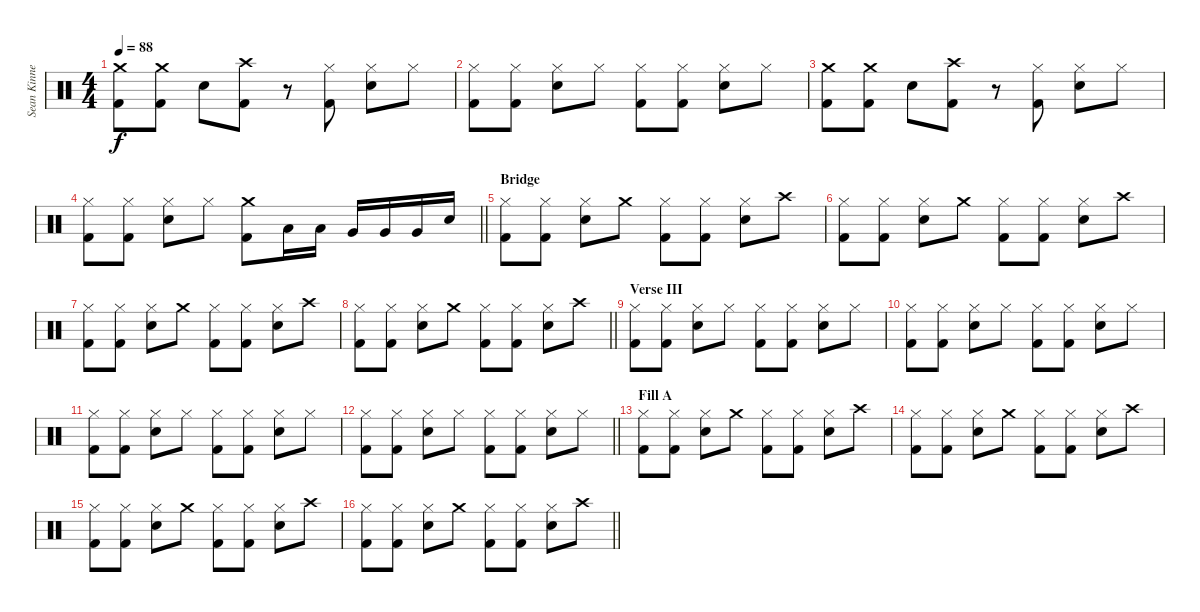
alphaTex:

\track ("Sean Kinney" "Sean Kinne") {instrument percussion}
\staff {score}
\articulation defaults
\ts (4 4)
\tempo 88
\clef neutral
\ks c
("Crash medium (hit)" "Kick (hit) 2").8{dy f} ("Crash medium (hit)" "Kick (hit) 2").8 "Electric Snare (hit)".8 ("Crash high (hit)" "Kick (hit) 2").8 r.8 ("Hi-Hat (closed)" "Kick (hit) 2").8 ("Hi-Hat (closed)" "Electric Snare (hit)").8 "Hi-Hat (closed)".8 |
("Hi-Hat (closed)" "Kick (hit) 2").8 ("Hi-Hat (closed)" "Kick (hit) 2").8 ("Hi-Hat (closed)" "Electric Snare (hit)").8 "Hi-Hat (closed)".8 ("Hi-Hat (closed)" "Kick (hit) 2").8 ("Hi-Hat (closed)" "Kick (hit) 2").8 ("Hi-Hat (closed)" "Electric Snare (hit)").8 "Hi-Hat (closed)".8 |
("Crash medium (hit)" "Kick (hit) 2").8 ("Crash medium (hit)" "Kick (hit) 2").8 "Electric Snare (hit)".8 ("Crash high (hit)" "Kick (hit) 2").8 r.8 ("Hi-Hat (closed)" "Kick (hit) 2").8 ("Hi-Hat (closed)" "Electric Snare (hit)").8 "Hi-Hat (closed)".8 |
\barLineRight lightlight
("Hi-Hat (closed)" "Kick (hit) 2").8 ("Hi-Hat (closed)" "Kick (hit) 2").8 ("Hi-Hat (closed)" "Electric Snare (hit)").8 "Hi-Hat (closed)".8 ("Crash medium (hit)" "Kick (hit) 2").8 "Low Tom (hit)".16 "Low Tom (hit)".16 "Very Low Tom (hit)".16 "Very Low Tom (hit)".16 "Very Low Tom (hit)".16 "Electric Snare (hit)".16 |
\section ("" "Bridge")
("Hi-Hat (closed)" "Kick (hit) 2").8 ("Hi-Hat (closed)" "Kick (hit) 2").8 ("Hi-Hat (closed)" "Electric Snare (hit)").8 "Crash medium (hit)".8 ("Hi-Hat (closed)" "Kick (hit) 2").8 ("Hi-Hat (closed)" "Kick (hit) 2").8 ("Hi-Hat (closed)" "Electric Snare (hit)").8 "Crash high (hit)".8 |
("Hi-Hat (closed)" "Kick (hit) 2").8 ("Hi-Hat (closed)" "Kick (hit) 2").8 ("Hi-Hat (closed)" "Electric Snare (hit)").8 "Crash medium (hit)".8 ("Hi-Hat (closed)" "Kick (hit) 2").8 ("Hi-Hat (closed)" "Kick (hit) 2").8 ("Hi-Hat (closed)" "Electric Snare (hit)").8 "Crash high (hit)".8 |
("Hi-Hat (closed)" "Kick (hit) 2").8 ("Hi-Hat (closed)" "Kick (hit) 2").8 ("Hi-Hat (closed)" "Electric Snare (hit)").8 "Crash medium (hit)".8 ("Hi-Hat (closed)" "Kick (hit) 2").8 ("Hi-Hat (closed)" "Kick (hit) 2").8 ("Hi-Hat (closed)" "Electric Snare (hit)").8 "Crash high (hit)".8 |
\barLineRight lightlight
("Hi-Hat (closed)" "Kick (hit) 2").8 ("Hi-Hat (closed)" "Kick (hit) 2").8 ("Hi-Hat (closed)" "Electric Snare (hit)").8 "Crash medium (hit)".8 ("Hi-Hat (closed)" "Kick (hit) 2").8 ("Hi-Hat (closed)" "Kick (hit) 2").8 ("Hi-Hat (closed)" "Electric Snare (hit)").8 "Crash high (hit)".8 |
\section ("" "Verse III")
("Hi-Hat (closed)" "Kick (hit) 2").8 ("Hi-Hat (closed)" "Kick (hit) 2").8 ("Hi-Hat (closed)" "Electric Snare (hit)").8 "Hi-Hat (closed)".8 ("Hi-Hat (closed)" "Kick (hit) 2").8 ("Hi-Hat (closed)" "Kick (hit) 2").8 ("Hi-Hat (closed)" "Electric Snare (hit)").8 "Hi-Hat (closed)".8 |
("Hi-Hat (closed)" "Kick (hit) 2").8 ("Hi-Hat (closed)" "Kick (hit) 2").8 ("Hi-Hat (closed)" "Electric Snare (hit)").8 "Hi-Hat (closed)".8 ("Hi-Hat (closed)" "Kick (hit) 2").8 ("Hi-Hat (closed)" "Kick (hit) 2").8 ("Hi-Hat (closed)" "Electric Snare (hit)").8 "Hi-Hat (closed)".8 |
("Hi-Hat (closed)" "Kick (hit) 2").8 ("Hi-Hat (closed)" "Kick (hit) 2").8 ("Hi-Hat (closed)" "Electric Snare (hit)").8 "Hi-Hat (closed)".8 ("Hi-Hat (closed)" "Kick (hit) 2").8 ("Hi-Hat (closed)" "Kick (hit) 2").8 ("Hi-Hat (closed)" "Electric Snare (hit)").8 "Hi-Hat (closed)".8 |
\barLineRight lightlight
("Hi-Hat (closed)" "Kick (hit) 2").8 ("Hi-Hat (closed)" "Kick (hit) 2").8 ("Hi-Hat (closed)" "Electric Snare (hit)").8 "Hi-Hat (closed)".8 ("Hi-Hat (closed)" "Kick (hit) 2").8 ("Hi-Hat (closed)" "Kick (hit) 2").8 ("Hi-Hat (closed)" "Electric Snare (hit)").8 "Hi-Hat (closed)".8 |
\section ("" "Fill A")
("Hi-Hat (closed)" "Kick (hit) 2").8 ("Hi-Hat (closed)" "Kick (hit) 2").8 ("Hi-Hat (closed)" "Electric Snare (hit)").8 "Crash medium (hit)".8 ("Hi-Hat (closed)" "Kick (hit) 2").8 ("Hi-Hat (closed)" "Kick (hit) 2").8 ("Hi-Hat (closed)" "Electric Snare (hit)").8 "Crash high (hit)".8 |
("Hi-Hat (closed)" "Kick (hit) 2").8 ("Hi-Hat (closed)" "Kick (hit) 2").8 ("Hi-Hat (closed)" "Electric Snare (hit)").8 "Crash medium (hit)".8 ("Hi-Hat (closed)" "Kick (hit) 2").8 ("Hi-Hat (closed)" "Kick (hit) 2").8 ("Hi-Hat (closed)" "Electric Snare (hit)").8 "Crash high (hit)".8 |
("Hi-Hat (closed)" "Kick (hit) 2").8 ("Hi-Hat (closed)" "Kick (hit) 2").8 ("Hi-Hat (closed)" "Electric Snare (hit)").8 "Crash medium (hit)".8 ("Hi-Hat (closed)" "Kick (hit) 2").8 ("Hi-Hat (closed)" "Kick (hit) 2").8 ("Hi-Hat (closed)" "Electric Snare (hit)").8 "Crash high (hit)".8 |
\barLineRight lightlight
("Hi-Hat (closed)" "Kick (hit) 2").8 ("Hi-Hat (closed)" "Kick (hit) 2").8 ("Hi-Hat (closed)" "Electric Snare (hit)").8 "Crash medium (hit)".8 ("Hi-Hat (closed)" "Kick (hit) 2").8 ("Hi-Hat (closed)" "Kick (hit) 2").8 ("Hi-Hat (closed)" "Electric Snare (hit)").8 "Crash high (hit)".8
